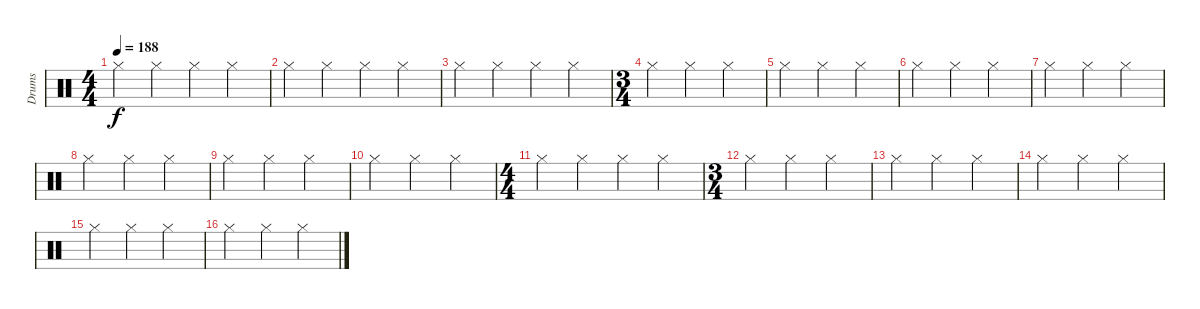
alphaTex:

\track ("Drums" "Drums") {instrument percussion}
\staff {score}
\articulation defaults
\ts (4 4)
\tempo 188
\clef neutral
\ks c "Hi-Hat (closed)".4{dy f} "Hi-Hat (closed)".4 "Hi-Hat (closed)".4 "Hi-Hat (closed)".4
|
"Hi-Hat (closed)".4 "Hi-Hat (closed)".4 "Hi-Hat (closed)".4 "Hi-Hat (closed)".4 |
"Hi-Hat (closed)".4 "Hi-Hat (closed)".4 "Hi-Hat (closed)".4 "Hi-Hat (closed)".4 |
\ts (3 4)
"Hi-Hat (closed)".4 "Hi-Hat (closed)".4 "Hi-Hat (closed)".4 |
"Hi-Hat (closed)".4 "Hi-Hat (closed)".4 "Hi-Hat (closed)".4 |
"Hi-Hat (closed)".4 "Hi-Hat (closed)".4 "Hi-Hat (closed)".4 |
"Hi-Hat (closed)".4 "Hi-Hat (closed)".4 "Hi-Hat (closed)".4 |
"Hi-Hat (closed)".4 "Hi-Hat (closed)".4 "Hi-Hat (closed)".4 |
"Hi-Hat (closed)".4 "Hi-Hat (closed)".4 "Hi-Hat (closed)".4 |
"Hi-Hat (closed)".4 "Hi-Hat (closed)".4 "Hi-Hat (closed)".4 |
\ts (4 4)
"Hi-Hat (closed)".4 "Hi-Hat (closed)".4 "Hi-Hat (closed)".4 "Hi-Hat (closed)".4 |
\ts (3 4)
"Hi-Hat (closed)".4 "Hi-Hat (closed)".4 "Hi-Hat (closed)".4 |
"Hi-Hat (closed)".4 "Hi-Hat (closed)".4 "Hi-Hat (closed)".4 |
"Hi-Hat (closed)".4 "Hi-Hat (closed)".4 "Hi-Hat (closed)".4 |
"Hi-Hat (closed)".4 "Hi-Hat (closed)".4 "Hi-Hat (closed)".4 |
"Hi-Hat (closed)".4 "Hi-Hat (closed)".4 "Hi-Hat (closed)".4
